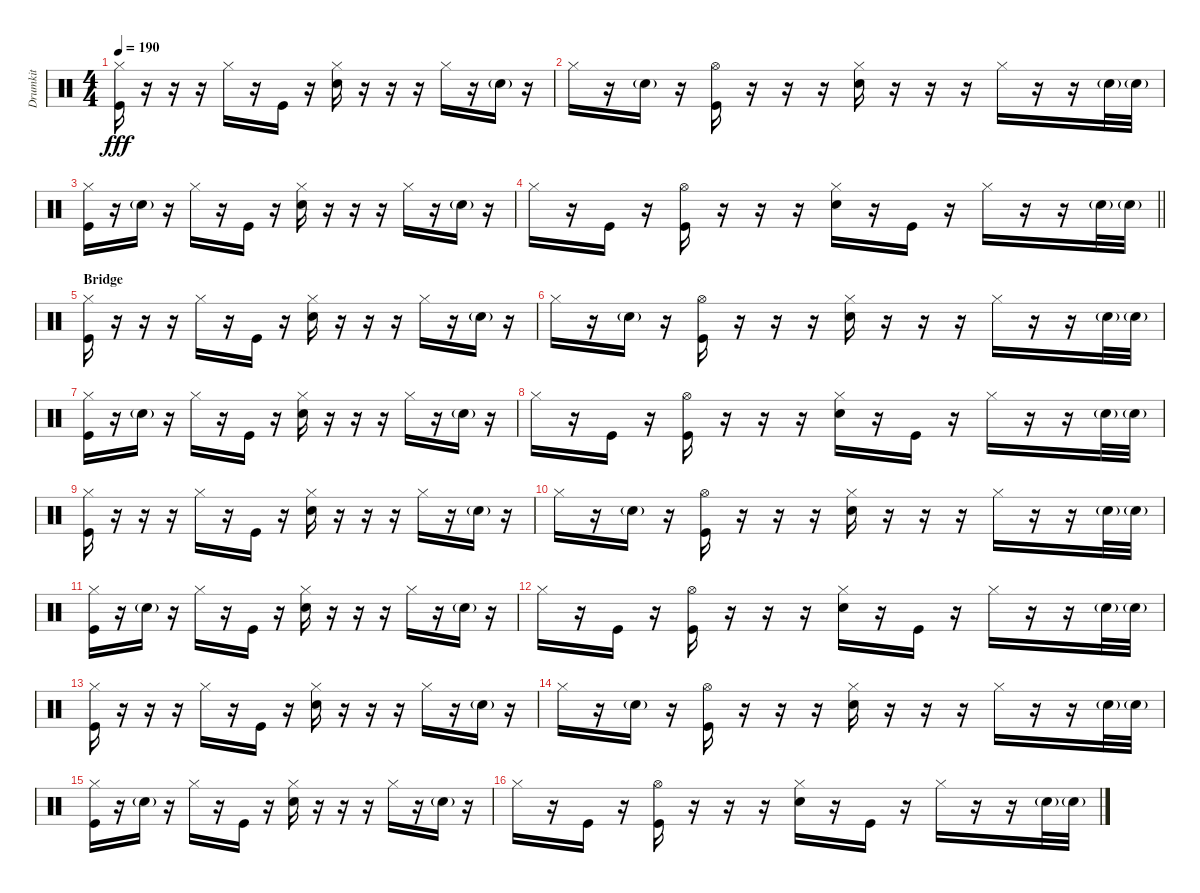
\track ("Drumkit" "Drumkit") {instrument percussion}
\staff {score}
\articulation defaults
\ts (4 4)
\tempo 190
\clef neutral
\ks c
("Hi-Hat (closed)" "Kick (hit)").16{dy fff} r.16 r.16 r.16 "Hi-Hat (closed)".16 r.16 "Kick (hit)".16 r.16 ("Hi-Hat (closed)" "Snare (hit) 2").16 r.16 r.16 r.16 "Hi-Hat (closed)".16 r.16 "Snare (hit) 2"{g}.16 r.16 |
"Hi-Hat (closed)".16 r.16 "Snare (hit) 2"{g}.16 r.16 ("Hi-Hat (open)" "Kick (hit)").16 r.16 r.16 r.16 ("Hi-Hat (closed)" "Snare (hit) 2").16 r.16 r.16 r.16 "Hi-Hat (closed)".16 r.16 r.16 "Snare (hit) 2"{g}.32 "Snare (hit) 2"{g}.32 |
("Hi-Hat (closed)" "Kick (hit)").16 r.16 "Snare (hit) 2"{g}.16 r.16 "Hi-Hat (closed)".16 r.16 "Kick (hit)".16 r.16 ("Hi-Hat (closed)" "Snare (hit) 2").16 r.16 r.16 r.16 "Hi-Hat (closed)".16 r.16 "Snare (hit) 2"{g}.16 r.16 |
\barLineRight lightlight "Hi-Hat (closed)".16
r.16 "Kick (hit)".16 r.16 ("Hi-Hat (open)" "Kick (hit)").16 r.16 r.16 r.16 ("Hi-Hat (closed)" "Snare (hit) 2").16 r.16 "Kick (hit)".16 r.16 "Hi-Hat (closed)".16 r.16 r.16 "Snare (hit) 2"{g}.32 "Snare (hit) 2"{g}.32 |
\section ("" "Bridge")
("Hi-Hat (closed)" "Kick (hit)").16 r.16 r.16 r.16 "Hi-Hat (closed)".16 r.16 "Kick (hit)".16 r.16 ("Hi-Hat (closed)" "Snare (hit) 2").16 r.16 r.16 r.16 "Hi-Hat (closed)".16 r.16 "Snare (hit) 2"{g}.16 r.16 |
"Hi-Hat (closed)".16 r.16 "Snare (hit) 2"{g}.16 r.16 ("Hi-Hat (open)" "Kick (hit)").16 r.16 r.16 r.16 ("Hi-Hat (closed)" "Snare (hit) 2").16 r.16 r.16 r.16 "Hi-Hat (closed)".16 r.16 r.16 "Snare (hit) 2"{g}.32 "Snare (hit) 2"{g}.32 |
("Hi-Hat (closed)" "Kick (hit)").16 r.16 "Snare (hit) 2"{g}.16 r.16 "Hi-Hat (closed)".16 r.16 "Kick (hit)".16 r.16 ("Hi-Hat (closed)" "Snare (hit) 2").16 r.16 r.16 r.16 "Hi-Hat (closed)".16 r.16 "Snare (hit) 2"{g}.16 r.16 |
"Hi-Hat (closed)".16 r.16 "Kick (hit)".16 r.16 ("Hi-Hat (open)" "Kick (hit)").16 r.16 r.16 r.16 ("Hi-Hat (closed)" "Snare (hit) 2").16 r.16 "Kick (hit)".16 r.16 "Hi-Hat (closed)".16 r.16 r.16 "Snare (hit) 2"{g}.32 "Snare (hit) 2"{g}.32 |
("Hi-Hat (closed)" "Kick (hit)").16 r.16 r.16 r.16 "Hi-Hat (closed)".16 r.16 "Kick (hit)".16 r.16 ("Hi-Hat (closed)" "Snare (hit) 2").16 r.16 r.16 r.16 "Hi-Hat (closed)".16 r.16 "Snare (hit) 2"{g}.16 r.16 |
"Hi-Hat (closed)".16 r.16 "Snare (hit) 2"{g}.16 r.16 ("Hi-Hat (open)" "Kick (hit)").16 r.16 r.16 r.16 ("Hi-Hat (closed)" "Snare (hit) 2").16 r.16 r.16 r.16 "Hi-Hat (closed)".16 r.16 r.16 "Snare (hit) 2"{g}.32 "Snare (hit) 2"{g}.32 |
("Hi-Hat (closed)" "Kick (hit)").16 r.16 "Snare (hit) 2"{g}.16 r.16 "Hi-Hat (closed)".16 r.16 "Kick (hit)".16 r.16 ("Hi-Hat (closed)" "Snare (hit) 2").16 r.16 r.16 r.16 "Hi-Hat (closed)".16 r.16 "Snare (hit) 2"{g}.16 r.16 |
"Hi-Hat (closed)".16 r.16 "Kick (hit)".16 r.16 ("Hi-Hat (open)" "Kick (hit)").16 r.16 r.16 r.16 ("Hi-Hat (closed)" "Snare (hit) 2").16 r.16 "Kick (hit)".16 r.16 "Hi-Hat (closed)".16 r.16 r.16 "Snare (hit) 2"{g}.32 "Snare (hit) 2"{g}.32 |
("Hi-Hat (closed)" "Kick (hit)").16 r.16 r.16 r.16 "Hi-Hat (closed)".16 r.16 "Kick (hit)".16 r.16 ("Hi-Hat (closed)" "Snare (hit) 2").16 r.16 r.16 r.16 "Hi-Hat (closed)".16 r.16 "Snare (hit) 2"{g}.16 r.16 |
"Hi-Hat (closed)".16 r.16 "Snare (hit) 2"{g}.16 r.16 ("Hi-Hat (open)" "Kick (hit)").16 r.16 r.16 r.16 ("Hi-Hat (closed)" "Snare (hit) 2").16 r.16 r.16 r.16 "Hi-Hat (closed)".16 r.16 r.16 "Snare (hit) 2"{g}.32 "Snare (hit) 2"{g}.32 |
("Hi-Hat (closed)" "Kick (hit)").16 r.16 "Snare (hit) 2"{g}.16 r.16 "Hi-Hat (closed)".16 r.16 "Kick (hit)".16 r.16 ("Hi-Hat (closed)" "Snare (hit) 2").16 r.16 r.16 r.16 "Hi-Hat (closed)".16 r.16 "Snare (hit) 2"{g}.16 r.16 |
"Hi-Hat (closed)".16 r.16 "Kick (hit)".16 r.16 ("Hi-Hat (open)" "Kick (hit)").16 r.16 r.16 r.16 ("Hi-Hat (closed)" "Snare (hit) 2").16 r.16 "Kick (hit)".16 r.16 "Hi-Hat (closed)".16 r.16 r.16 "Snare (hit) 2"{g}.32 "Snare (hit) 2"{g}.32
